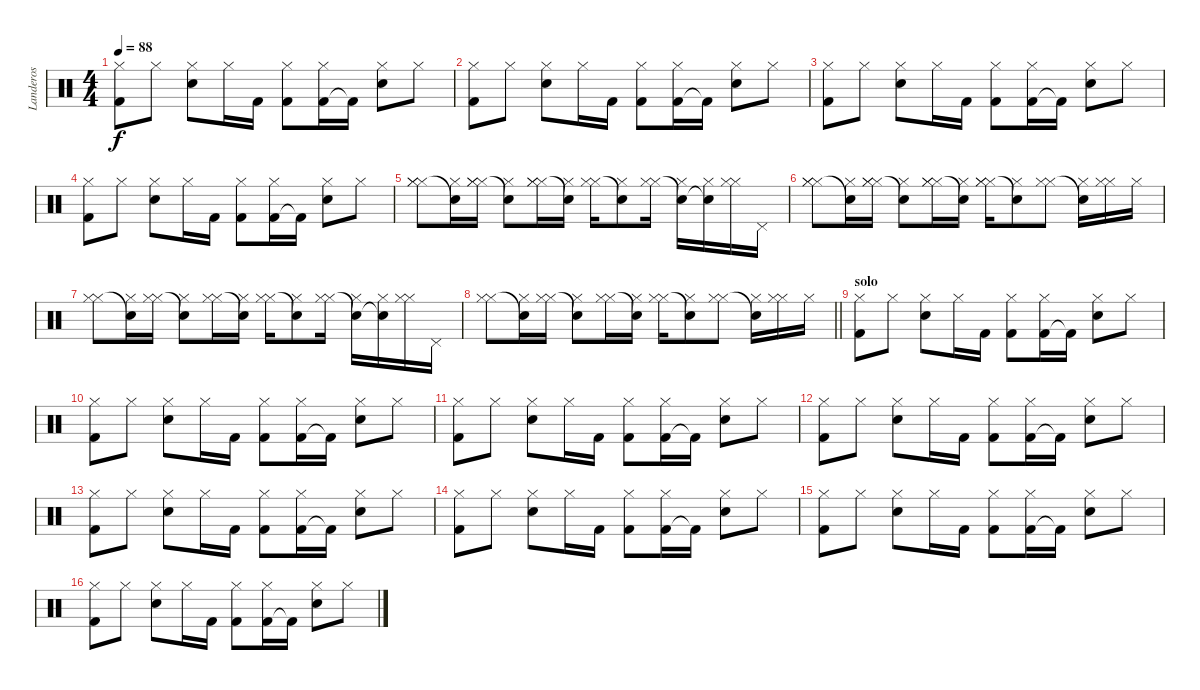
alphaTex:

\track ("Landeros" "Landeros") {instrument percussion}
\staff {score}
\articulation defaults
\ts (4 4)
\tempo 88
\clef neutral
\ks c
("Kick (hit) 2" "Hi-Hat (closed)").8{dy f} "Hi-Hat (closed)".8 ("Electric Snare (hit)" "Hi-Hat (closed)").8 "Hi-Hat (closed)".16 "Kick (hit) 2".16 ("Kick (hit) 2" "Hi-Hat (closed)").8 ("Kick (hit) 2" "Hi-Hat (closed)").16 "Kick (hit) 2"{t}.16 ("Electric Snare (hit)" "Hi-Hat (closed)").8 "Hi-Hat (closed)".8 |
("Kick (hit) 2" "Hi-Hat (closed)").8 "Hi-Hat (closed)".8 ("Electric Snare (hit)" "Hi-Hat (closed)").8 "Hi-Hat (closed)".16 "Kick (hit) 2".16 ("Kick (hit) 2" "Hi-Hat (closed)").8 ("Kick (hit) 2" "Hi-Hat (closed)").16 "Kick (hit) 2"{t}.16 ("Electric Snare (hit)" "Hi-Hat (closed)").8 "Hi-Hat (closed)".8 |
("Kick (hit) 2" "Hi-Hat (closed)").8 "Hi-Hat (closed)".8 ("Electric Snare (hit)" "Hi-Hat (closed)").8 "Hi-Hat (closed)".16 "Kick (hit) 2".16 ("Kick (hit) 2" "Hi-Hat (closed)").8 ("Kick (hit) 2" "Hi-Hat (closed)").16 "Kick (hit) 2"{t}.16 ("Electric Snare (hit)" "Hi-Hat (closed)").8 "Hi-Hat (closed)".8 |
("Kick (hit) 2" "Hi-Hat (closed)").8 "Hi-Hat (closed)".8 ("Electric Snare (hit)" "Hi-Hat (closed)").8 "Hi-Hat (closed)".16 "Kick (hit) 2".16 ("Kick (hit) 2" "Hi-Hat (closed)").8 ("Kick (hit) 2" "Hi-Hat (closed)").16 "Kick (hit) 2"{t}.16 ("Electric Snare (hit)" "Hi-Hat (closed)").8 "Hi-Hat (closed)".8 |
("Hi-Hat (closed)" "Hi-Hat (closed)" "Hi-Hat (closed)").8 ("Snare (hit)"{t} "Hi-Hat (closed)").16 ("Hi-Hat (closed)" "Hi-Hat (closed)" "Hi-Hat (closed)").16 ("Snare (hit)"{t} "Hi-Hat (closed)").8 ("Hi-Hat (closed)" "Hi-Hat (closed)" "Hi-Hat (closed)").16 ("Snare (hit)"{t} "Hi-Hat (closed)").16 ("Hi-Hat (closed)" "Hi-Hat (closed)").16 ("Snare (hit)"{t} "Hi-Hat (closed)").8 ("Hi-Hat (closed)" "Hi-Hat (closed)").16 ("Snare (hit)"{t} "Hi-Hat (closed)").16 ("Snare (hit)"{t} "Hi-Hat (closed)").16 ("Hi-Hat (closed)" "Hi-Hat (closed)").16 "Pedal Hi-Hat (hit)".16 |
("Hi-Hat (closed)" "Hi-Hat (closed)" "Hi-Hat (closed)").8 ("Snare (hit)"{t} "Hi-Hat (closed)").16 ("Hi-Hat (closed)" "Hi-Hat (closed)" "Hi-Hat (closed)").16 ("Snare (hit)"{t} "Hi-Hat (closed)").8 ("Hi-Hat (closed)" "Hi-Hat (closed)" "Hi-Hat (closed)").16 ("Snare (hit)"{t} "Hi-Hat (closed)").16 ("Hi-Hat (closed)" "Hi-Hat (closed)" "Hi-Hat (closed)").16 ("Snare (hit)"{t} "Hi-Hat (closed)").8 ("Hi-Hat (closed)" "Hi-Hat (closed)").8 ("Snare (hit)"{t} "Hi-Hat (closed)").16 ("Hi-Hat (closed)" "Hi-Hat (closed)").16 "Hi-Hat (closed)".16 |
("Hi-Hat (closed)" "Hi-Hat (closed)").8 ("Snare (hit)"{t} "Hi-Hat (closed)").16 ("Hi-Hat (closed)" "Hi-Hat (closed)").16 ("Snare (hit)"{t} "Hi-Hat (closed)").8 ("Hi-Hat (closed)" "Hi-Hat (closed)").16 ("Snare (hit)"{t} "Hi-Hat (closed)").16 ("Hi-Hat (closed)" "Hi-Hat (closed)").16 ("Snare (hit)"{t} "Hi-Hat (closed)").8 ("Hi-Hat (closed)" "Hi-Hat (closed)").16 ("Snare (hit)"{t} "Hi-Hat (closed)").16 ("Snare (hit)"{t} "Hi-Hat (closed)").16 ("Hi-Hat (closed)" "Hi-Hat (closed)").16 "Pedal Hi-Hat (hit)".16 |
\barLineRight lightlight
("Hi-Hat (closed)" "Hi-Hat (closed)").8 ("Snare (hit)"{t} "Hi-Hat (closed)").16 ("Hi-Hat (closed)" "Hi-Hat (closed)").16 ("Snare (hit)"{t} "Hi-Hat (closed)").8 ("Hi-Hat (closed)" "Hi-Hat (closed)").16 ("Snare (hit)"{t} "Hi-Hat (closed)").16 ("Hi-Hat (closed)" "Hi-Hat (closed)").16 ("Snare (hit)"{t} "Hi-Hat (closed)").8 ("Hi-Hat (closed)" "Hi-Hat (closed)").8 ("Snare (hit)"{t} "Hi-Hat (closed)").16 ("Hi-Hat (closed)" "Hi-Hat (closed)").16 "Hi-Hat (closed)".16 |
\section ("" "solo")
("Kick (hit) 2" "Hi-Hat (closed)").8 "Hi-Hat (closed)".8 ("Electric Snare (hit)" "Hi-Hat (closed)").8 "Hi-Hat (closed)".16 "Kick (hit) 2".16 ("Kick (hit) 2" "Hi-Hat (closed)").8 ("Kick (hit) 2" "Hi-Hat (closed)").16 "Kick (hit) 2"{t}.16 ("Electric Snare (hit)" "Hi-Hat (closed)").8 "Hi-Hat (closed)".8 |
("Kick (hit) 2" "Hi-Hat (closed)").8 "Hi-Hat (closed)".8 ("Electric Snare (hit)" "Hi-Hat (closed)").8 "Hi-Hat (closed)".16 "Kick (hit) 2".16 ("Kick (hit) 2" "Hi-Hat (closed)").8 ("Kick (hit) 2" "Hi-Hat (closed)").16 "Kick (hit) 2"{t}.16 ("Electric Snare (hit)" "Hi-Hat (closed)").8 "Hi-Hat (closed)".8 |
("Kick (hit) 2" "Hi-Hat (closed)").8 "Hi-Hat (closed)".8 ("Electric Snare (hit)" "Hi-Hat (closed)").8 "Hi-Hat (closed)".16 "Kick (hit) 2".16 ("Kick (hit) 2" "Hi-Hat (closed)").8 ("Kick (hit) 2" "Hi-Hat (closed)").16 "Kick (hit) 2"{t}.16 ("Electric Snare (hit)" "Hi-Hat (closed)").8 "Hi-Hat (closed)".8 |
("Kick (hit) 2" "Hi-Hat (closed)").8 "Hi-Hat (closed)".8 ("Electric Snare (hit)" "Hi-Hat (closed)").8 "Hi-Hat (closed)".16 "Kick (hit) 2".16 ("Kick (hit) 2" "Hi-Hat (closed)").8 ("Kick (hit) 2" "Hi-Hat (closed)").16 "Kick (hit) 2"{t}.16 ("Electric Snare (hit)" "Hi-Hat (closed)").8 "Hi-Hat (closed)".8 |
("Kick (hit) 2" "Hi-Hat (closed)").8 "Hi-Hat (closed)".8 ("Electric Snare (hit)" "Hi-Hat (closed)").8 "Hi-Hat (closed)".16 "Kick (hit) 2".16 ("Kick (hit) 2" "Hi-Hat (closed)").8 ("Kick (hit) 2" "Hi-Hat (closed)").16 "Kick (hit) 2"{t}.16 ("Electric Snare (hit)" "Hi-Hat (closed)").8 "Hi-Hat (closed)".8 |
("Kick (hit) 2" "Hi-Hat (closed)").8 "Hi-Hat (closed)".8 ("Electric Snare (hit)" "Hi-Hat (closed)").8 "Hi-Hat (closed)".16 "Kick (hit) 2".16 ("Kick (hit) 2" "Hi-Hat (closed)").8 ("Kick (hit) 2" "Hi-Hat (closed)").16 "Kick (hit) 2"{t}.16 ("Electric Snare (hit)" "Hi-Hat (closed)").8 "Hi-Hat (closed)".8 |
("Kick (hit) 2" "Hi-Hat (closed)").8 "Hi-Hat (closed)".8 ("Electric Snare (hit)" "Hi-Hat (closed)").8 "Hi-Hat (closed)".16 "Kick (hit) 2".16 ("Kick (hit) 2" "Hi-Hat (closed)").8 ("Kick (hit) 2" "Hi-Hat (closed)").16 "Kick (hit) 2"{t}.16 ("Electric Snare (hit)" "Hi-Hat (closed)").8 "Hi-Hat (closed)".8 |
("Kick (hit) 2" "Hi-Hat (closed)").8 "Hi-Hat (closed)".8 ("Electric Snare (hit)" "Hi-Hat (closed)").8 "Hi-Hat (closed)".16 "Kick (hit) 2".16 ("Kick (hit) 2" "Hi-Hat (closed)").8 ("Kick (hit) 2" "Hi-Hat (closed)").16 "Kick (hit) 2"{t}.16 ("Electric Snare (hit)" "Hi-Hat (closed)").8 "Hi-Hat (closed)".8
